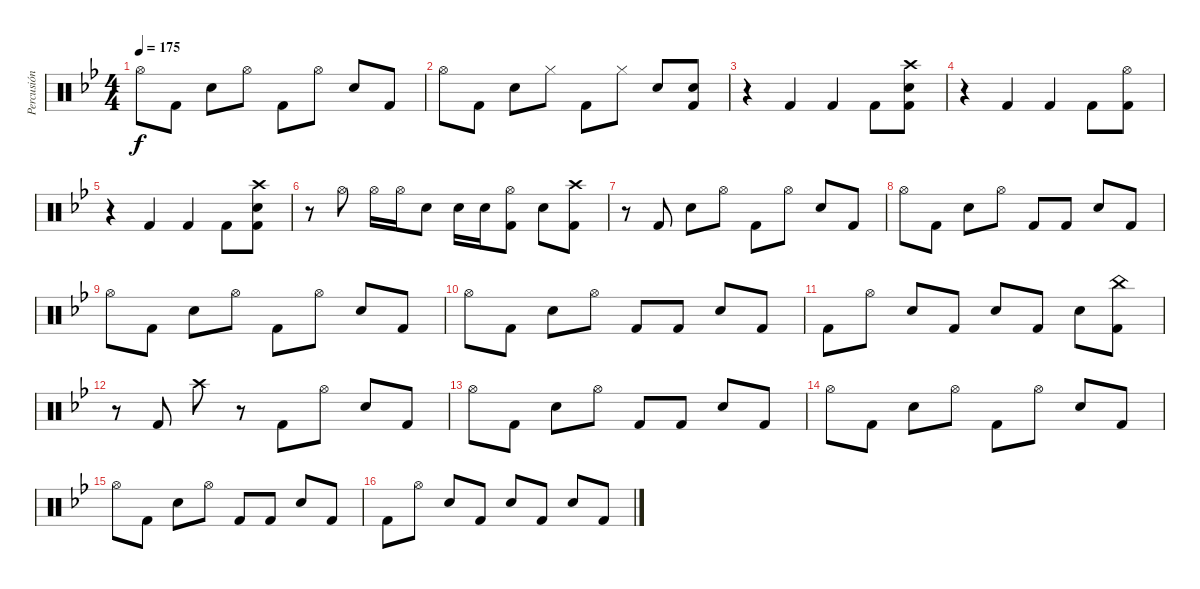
\track ("Percusión" "Percusión") {instrument percussion}
\staff {score}
\articulation defaults
\ts (4 4)
\tempo 175
\clef neutral
\ks bb "Hi-Hat (open)".8{dy f} "Kick (hit) 2".8 "Electric Snare (hit)".8 "Hi-Hat (open)".8 "Kick (hit) 2".8 "Hi-Hat (open)".8 "Electric Snare (hit)".8 "Kick (hit) 2".8
|
"Hi-Hat (open)".8 "Kick (hit) 2".8 "Electric Snare (hit)".8 "Hi-Hat (closed)".8 "Kick (hit) 2".8 "Hi-Hat (closed)".8 "Electric Snare (hit)".8 ("Electric Snare (hit)" "Kick (hit) 2").8 |
r.4 "Kick (hit) 2".4 "Kick (hit) 2".4 "Kick (hit) 2".8 ("Crash high (hit)" "Electric Snare (hit)" "Kick (hit) 2").8 |
r.4 "Kick (hit) 2".4 "Kick (hit) 2".4 "Kick (hit) 2".8 ("Hi-Hat (open)" "Kick (hit) 2").8 |
r.4 "Kick (hit) 2".4 "Kick (hit) 2".4 "Kick (hit) 2".8 ("Crash high (hit)" "Electric Snare (hit)" "Kick (hit) 2").8 |
r.8 "Hi-Hat (open)".8 "Hi-Hat (open)".16 "Hi-Hat (open)".16 "Electric Snare (hit)".8 "Electric Snare (hit)".16 "Electric Snare (hit)".16 ("Hi-Hat (open)" "Kick (hit) 2").8 "Electric Snare (hit)".8 ("Crash high (hit)" "Kick (hit) 2").8 |
r.8 "Kick (hit) 2".8 "Electric Snare (hit)".8 "Hi-Hat (open)".8 "Kick (hit) 2".8 "Hi-Hat (open)".8 "Electric Snare (hit)".8 "Kick (hit) 2".8 |
"Hi-Hat (open)".8 "Kick (hit) 2".8 "Electric Snare (hit)".8 "Hi-Hat (open)".8 "Kick (hit) 2".8 "Kick (hit) 2".8 "Electric Snare (hit)".8 "Kick (hit) 2".8 |
"Hi-Hat (open)".8 "Kick (hit) 2".8 "Electric Snare (hit)".8 "Hi-Hat (open)".8 "Kick (hit) 2".8 "Hi-Hat (open)".8 "Electric Snare (hit)".8 "Kick (hit) 2".8 |
"Hi-Hat (open)".8 "Kick (hit) 2".8 "Electric Snare (hit)".8 "Hi-Hat (open)".8 "Kick (hit) 2".8 "Kick (hit) 2".8 "Electric Snare (hit)".8 "Kick (hit) 2".8 |
"Kick (hit) 2".8 "Hi-Hat (open)".8 "Electric Snare (hit)".8 "Kick (hit) 2".8 "Electric Snare (hit)".8 "Kick (hit) 2".8 "Electric Snare (hit)".8 ("China (hit)" "Kick (hit) 2").8 |
r.8 "Kick (hit) 2".8 "Crash high (hit)".8 r.8 "Kick (hit) 2".8 "Hi-Hat (open)".8 "Electric Snare (hit)".8 "Kick (hit) 2".8 |
"Hi-Hat (open)".8 "Kick (hit) 2".8 "Electric Snare (hit)".8 "Hi-Hat (open)".8 "Kick (hit) 2".8 "Kick (hit) 2".8 "Electric Snare (hit)".8 "Kick (hit) 2".8 |
"Hi-Hat (open)".8 "Kick (hit) 2".8 "Electric Snare (hit)".8 "Hi-Hat (open)".8 "Kick (hit) 2".8 "Hi-Hat (open)".8 "Electric Snare (hit)".8 "Kick (hit) 2".8 |
"Hi-Hat (open)".8 "Kick (hit) 2".8 "Electric Snare (hit)".8 "Hi-Hat (open)".8 "Kick (hit) 2".8 "Kick (hit) 2".8 "Electric Snare (hit)".8 "Kick (hit) 2".8 |
"Kick (hit) 2".8 "Hi-Hat (open)".8 "Electric Snare (hit)".8 "Kick (hit) 2".8 "Electric Snare (hit)".8 "Kick (hit) 2".8 "Electric Snare (hit)".8 "Kick (hit) 2".8
